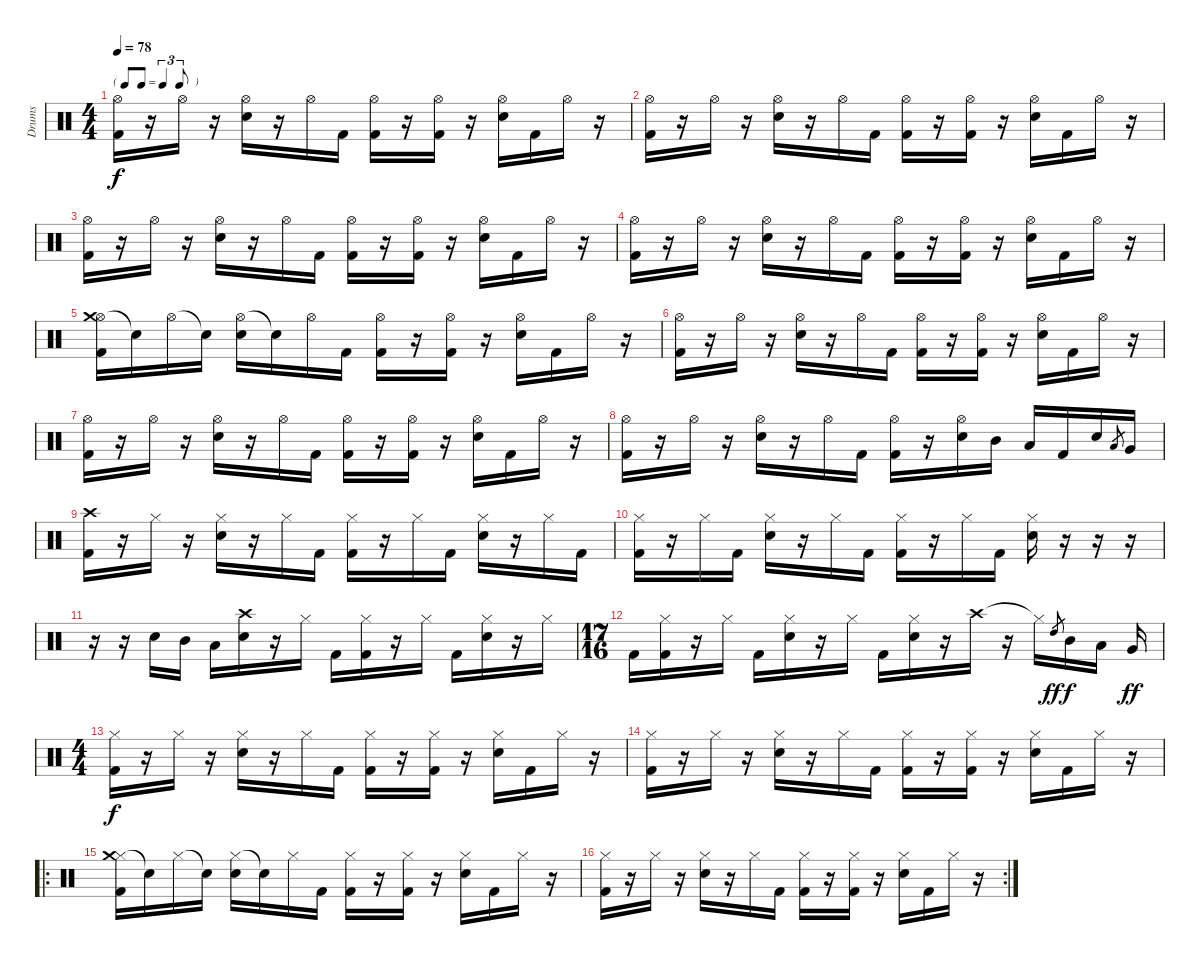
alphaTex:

\track ("Drums" "Drums") {instrument percussion}
\staff {score}
\articulation defaults
\ts (4 4)
\tf triplet8th
\tempo 78
\clef neutral
\ks c
("Hi-Hat (open)" "Kick (hit) 2").16{dy f} r.16 "Hi-Hat (open)".16 r.16 ("Hi-Hat (open)" "Electric Snare (hit)").16 r.16 "Hi-Hat (open)".16 "Kick (hit) 2".16 ("Hi-Hat (open)" "Kick (hit) 2").16 r.16 ("Hi-Hat (open)" "Kick (hit) 2").16 r.16 ("Hi-Hat (open)" "Electric Snare (hit)").16 "Kick (hit) 2".16 "Hi-Hat (open)".16 r.16 |
("Hi-Hat (open)" "Kick (hit) 2").16 r.16 "Hi-Hat (open)".16 r.16 ("Hi-Hat (open)" "Electric Snare (hit)").16 r.16 "Hi-Hat (open)".16 "Kick (hit) 2".16 ("Hi-Hat (open)" "Kick (hit) 2").16 r.16 ("Hi-Hat (open)" "Kick (hit) 2").16 r.16 ("Hi-Hat (open)" "Electric Snare (hit)").16 "Kick (hit) 2".16 "Hi-Hat (open)".16 r.16 |
("Hi-Hat (open)" "Kick (hit) 2").16 r.16 "Hi-Hat (open)".16 r.16 ("Hi-Hat (open)" "Electric Snare (hit)").16 r.16 "Hi-Hat (open)".16 "Kick (hit) 2".16 ("Hi-Hat (open)" "Kick (hit) 2").16 r.16 ("Hi-Hat (open)" "Kick (hit) 2").16 r.16 ("Hi-Hat (open)" "Electric Snare (hit)").16 "Kick (hit) 2".16 "Hi-Hat (open)".16 r.16 |
("Hi-Hat (open)" "Kick (hit) 2").16 r.16 "Hi-Hat (open)".16 r.16 ("Hi-Hat (open)" "Electric Snare (hit)").16 r.16 "Hi-Hat (open)".16 "Kick (hit) 2".16 ("Hi-Hat (open)" "Kick (hit) 2").16 r.16 ("Hi-Hat (open)" "Kick (hit) 2").16 r.16 ("Hi-Hat (open)" "Electric Snare (hit)").16 "Kick (hit) 2".16 "Hi-Hat (open)".16 r.16 |
("Hi-Hat (open)" "Crash medium (hit)" "Kick (hit) 2").16 "Snare (hit)"{t}.16 "Hi-Hat (open)".16 "Snare (hit)"{t}.16 ("Hi-Hat (open)" "Electric Snare (hit)").16 "Snare (hit)"{t}.16 "Hi-Hat (open)".16 "Kick (hit) 2".16 ("Hi-Hat (open)" "Kick (hit) 2").16 r.16 ("Hi-Hat (open)" "Kick (hit) 2").16 r.16 ("Hi-Hat (open)" "Electric Snare (hit)").16 "Kick (hit) 2".16 "Hi-Hat (open)".16 r.16 |
("Hi-Hat (open)" "Kick (hit) 2").16 r.16 "Hi-Hat (open)".16 r.16 ("Hi-Hat (open)" "Electric Snare (hit)").16 r.16 "Hi-Hat (open)".16 "Kick (hit) 2".16 ("Hi-Hat (open)" "Kick (hit) 2").16 r.16 ("Hi-Hat (open)" "Kick (hit) 2").16 r.16 ("Hi-Hat (open)" "Electric Snare (hit)").16 "Kick (hit) 2".16 "Hi-Hat (open)".16 r.16 |
("Hi-Hat (open)" "Kick (hit) 2").16 r.16 "Hi-Hat (open)".16 r.16 ("Hi-Hat (open)" "Electric Snare (hit)").16 r.16 "Hi-Hat (open)".16 "Kick (hit) 2".16 ("Hi-Hat (open)" "Kick (hit) 2").16 r.16 ("Hi-Hat (open)" "Kick (hit) 2").16 r.16 ("Hi-Hat (open)" "Electric Snare (hit)").16 "Kick (hit) 2".16 "Hi-Hat (open)".16 r.16 |
("Hi-Hat (open)" "Kick (hit) 2").16 r.16 "Hi-Hat (open)".16 r.16 ("Hi-Hat (open)" "Electric Snare (hit)").16 r.16 "Hi-Hat (open)".16 "Kick (hit) 2".16 ("Hi-Hat (open)" "Kick (hit) 2").16 r.16 ("Hi-Hat (open)" "Electric Snare (hit)").16 "Mid Tom (hit)".16 "Low Tom (hit)".16 "Kick (hit) 2".16 "Electric Snare (hit)".16 "Low Tom (hit)".8{gr} "Very Low Tom (hit)".16 |
("Crash high (hit)" "Kick (hit) 2").16 r.16 "Hi-Hat (closed)".16 r.16 ("Hi-Hat (closed)" "Electric Snare (hit)").16 r.16 "Hi-Hat (closed)".16 "Kick (hit) 2".16 ("Hi-Hat (closed)" "Kick (hit) 2").16 r.16 "Hi-Hat (closed)".16 "Kick (hit) 2".16 ("Hi-Hat (closed)" "Electric Snare (hit)").16 r.16 "Hi-Hat (closed)".16 "Kick (hit) 2".16 |
("Hi-Hat (closed)" "Kick (hit) 2").16 r.16 "Hi-Hat (closed)".16 "Kick (hit) 2".16 ("Hi-Hat (closed)" "Electric Snare (hit)").16 r.16 "Hi-Hat (closed)".16 "Kick (hit) 2".16 ("Hi-Hat (closed)" "Kick (hit) 2").16 r.16 "Hi-Hat (closed)".16 "Kick (hit) 2".16 ("Hi-Hat (closed)" "Electric Snare (hit)").16 r.16 r.16 r.16 |
r.16 r.16 "Electric Snare (hit)".16 "Mid Tom (hit)".16 "Low Tom (hit)".16 ("Crash high (hit)" "Electric Snare (hit)").16 r.16 "Hi-Hat (closed)".16 "Kick (hit) 2".16 ("Hi-Hat (closed)" "Kick (hit) 2").16 r.16 "Hi-Hat (closed)".16 "Kick (hit) 2".16 ("Hi-Hat (closed)" "Electric Snare (hit)").16 r.16 "Hi-Hat (closed)".16 |
\ts (17 16)
"Kick (hit) 2".16 ("Hi-Hat (closed)" "Kick (hit) 2").16 r.16 "Hi-Hat (closed)".16 "Kick (hit) 2".16 ("Hi-Hat (closed)" "Electric Snare (hit)").16 r.16 "Hi-Hat (closed)".16 "Kick (hit) 2".16 ("Hi-Hat (closed)" "Electric Snare (hit)").16 r.16 "Crash high (hit)".16 r.16 "Hi-Hat (closed)"{t}.16 "High Tom (hit)".8{gr dy ff} "Mid Tom (hit)".16{dy f} "Low Tom (hit)".16 "Very Low Tom (hit)".16{dy ff} |
\ts (4 4)
("Hi-Hat (closed)" "Kick (hit) 2").16{dy f} r.16 "Hi-Hat (closed)".16 r.16 ("Hi-Hat (closed)" "Electric Snare (hit)").16 r.16 "Hi-Hat (closed)".16 "Kick (hit) 2".16 ("Hi-Hat (closed)" "Kick (hit) 2").16 r.16 ("Hi-Hat (closed)" "Kick (hit) 2").16 r.16 ("Hi-Hat (closed)" "Electric Snare (hit)").16 "Kick (hit) 2".16 "Hi-Hat (closed)".16 r.16 |
("Hi-Hat (closed)" "Kick (hit) 2").16 r.16 "Hi-Hat (closed)".16 r.16 ("Hi-Hat (closed)" "Electric Snare (hit)").16 r.16 "Hi-Hat (closed)".16 "Kick (hit) 2".16 ("Hi-Hat (closed)" "Kick (hit) 2").16 r.16 ("Hi-Hat (closed)" "Kick (hit) 2").16 r.16 ("Hi-Hat (closed)" "Electric Snare (hit)").16 "Kick (hit) 2".16 "Hi-Hat (closed)".16 r.16 |
\ro
("Hi-Hat (closed)" "Crash medium (hit)" "Kick (hit) 2").16 "Snare (hit)"{t}.16 "Hi-Hat (closed)".16 "Snare (hit)"{t}.16 ("Hi-Hat (closed)" "Electric Snare (hit)").16 "Snare (hit)"{t}.16 "Hi-Hat (closed)".16 "Kick (hit) 2".16 ("Hi-Hat (closed)" "Kick (hit) 2").16 r.16 ("Hi-Hat (closed)" "Kick (hit) 2").16 r.16 ("Hi-Hat (closed)" "Electric Snare (hit)").16 "Kick (hit) 2".16 "Hi-Hat (closed)".16 r.16 |
\rc 2
("Hi-Hat (closed)" "Kick (hit) 2").16 r.16 "Hi-Hat (closed)".16 r.16 ("Hi-Hat (closed)" "Electric Snare (hit)").16 r.16 "Hi-Hat (closed)".16 "Kick (hit) 2".16 ("Hi-Hat (closed)" "Kick (hit) 2").16 r.16 ("Hi-Hat (closed)" "Kick (hit) 2").16 r.16 ("Hi-Hat (closed)" "Electric Snare (hit)").16 "Kick (hit) 2".16 "Hi-Hat (closed)".16 r.16
